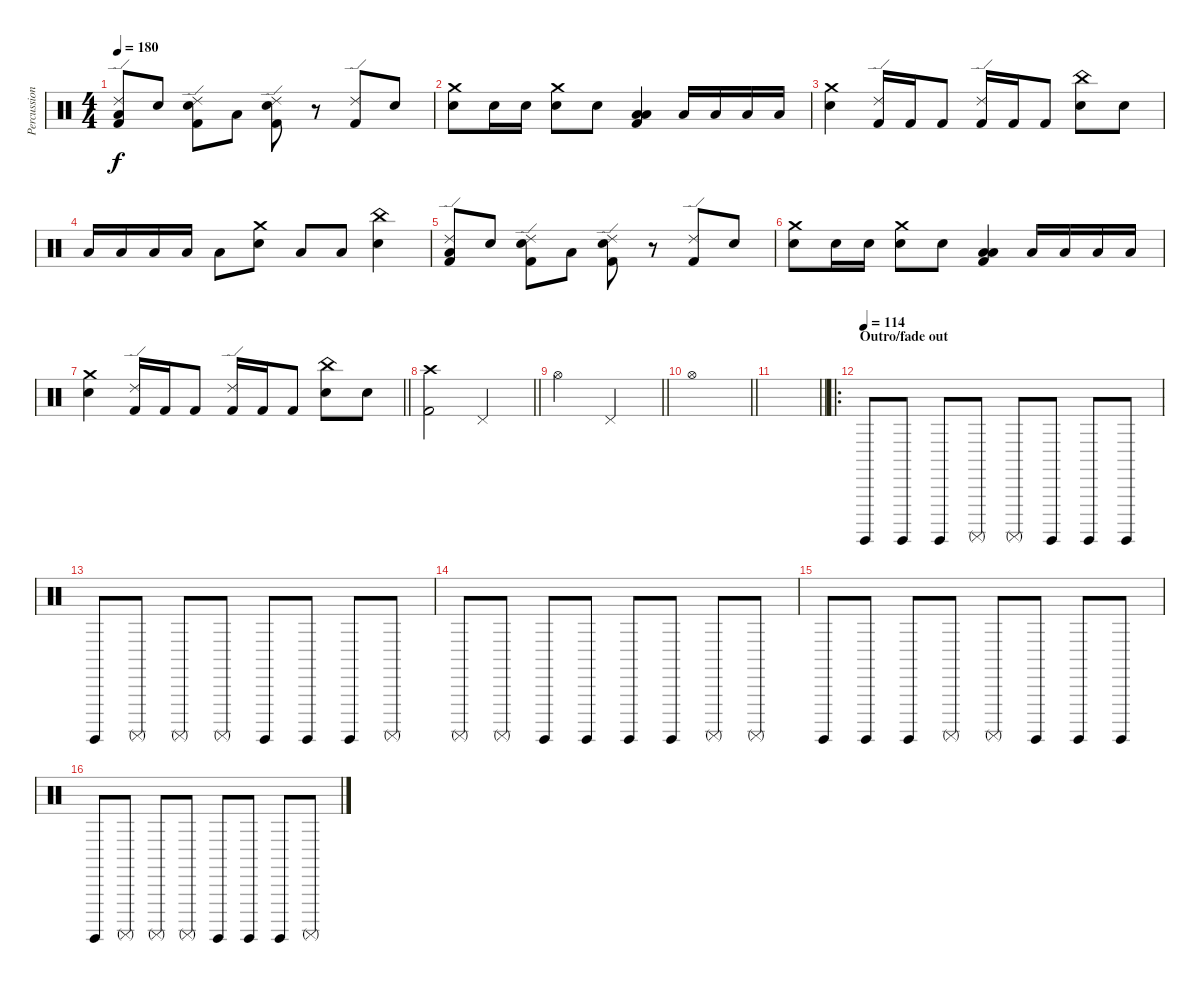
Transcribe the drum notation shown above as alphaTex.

\track ("Percussion" "Percussion") {instrument percussion}
\staff {score}
\articulation defaults
\ts (4 4)
\tempo 180
\clef neutral
\ks c
("Ride (edge) 2" "Low Floor Tom (hit)" "Kick (hit) 2").8{dy f} "Electric Snare (hit)".8 ("Ride (edge) 2" "Electric Snare (hit)" "Kick (hit) 2").8 "Low Floor Tom (hit)".8 ("Ride (edge) 2" "Electric Snare (hit)" "Kick (hit) 2").8 r.8 ("Ride (edge) 2" "Kick (hit) 2").8 "Electric Snare (hit)".8 |
("Crash medium (hit)" "Electric Snare (hit)").8 "Electric Snare (hit)".16 "Electric Snare (hit)".16 ("Crash medium (hit)" "Electric Snare (hit)").8 "Electric Snare (hit)".8 ("Low Tom (hit)" "Low Floor Tom (hit)" "Kick (hit) 2").4 "Low Tom (hit)".16 "Low Tom (hit)".16 "Low Floor Tom (hit)".16 "Low Floor Tom (hit)".16 |
("Crash medium (hit)" "Electric Snare (hit)").4 ("Ride (edge) 2" "Kick (hit) 2").16 "Kick (hit) 2".16 "Kick (hit) 2".8 ("Ride (edge) 2" "Kick (hit) 2").16 "Kick (hit) 2".16 "Kick (hit) 2".8 ("China (hit)" "Electric Snare (hit)").8 "Electric Snare (hit)".8 |
"Low Tom (hit)".16 "Low Tom (hit)".16 "Low Floor Tom (hit)".16 "Low Floor Tom (hit)".16 "Low Floor Tom (hit)".8 ("Crash medium (hit)" "Electric Snare (hit)").8 "Low Tom (hit)".8 "Low Tom (hit)".8 ("China (hit)" "Electric Snare (hit)").4 |
("Ride (edge) 2" "Low Floor Tom (hit)" "Kick (hit) 2").8 "Electric Snare (hit)".8 ("Ride (edge) 2" "Electric Snare (hit)" "Kick (hit) 2").8 "Low Floor Tom (hit)".8 ("Ride (edge) 2" "Electric Snare (hit)" "Kick (hit) 2").8 r.8 ("Ride (edge) 2" "Kick (hit) 2").8 "Electric Snare (hit)".8 |
("Crash medium (hit)" "Electric Snare (hit)").8 "Electric Snare (hit)".16 "Electric Snare (hit)".16 ("Crash medium (hit)" "Electric Snare (hit)").8 "Electric Snare (hit)".8 ("Low Tom (hit)" "Low Floor Tom (hit)" "Kick (hit) 2").4 "Low Tom (hit)".16 "Low Tom (hit)".16 "Low Floor Tom (hit)".16 "Low Floor Tom (hit)".16 |
\barLineRight lightlight
("Crash medium (hit)" "Electric Snare (hit)").4 ("Ride (edge) 2" "Kick (hit) 2").16 "Kick (hit) 2".16 "Kick (hit) 2".8 ("Ride (edge) 2" "Kick (hit) 2").16 "Kick (hit) 2".16 "Kick (hit) 2".8 ("China (hit)" "Electric Snare (hit)").8 "Electric Snare (hit)".8 |
\barLineRight lightlight
("Crash high (hit)" "Kick (hit) 2").2 "Pedal Hi-Hat (hit)".2 |
\barLineRight lightlight "Hi-Hat (open)".2 "Pedal Hi-Hat (hit)".2
|
\barLineRight lightlight "Hi-Hat (open)".1
|
\barLineRight lightlight
|
\ro
\section ("" "Outro/fade out")
\tempo (114)
"Surdo (hit)".8 "Surdo (hit)".8 "Surdo (hit)".8 "Surdo (mute)".8 "Surdo (mute)".8 "Surdo (hit)".8 "Surdo (hit)".8 "Surdo (hit)".8 |
"Surdo (hit)".8 "Surdo (mute)".8 "Surdo (mute)".8 "Surdo (mute)".8 "Surdo (hit)".8 "Surdo (hit)".8 "Surdo (hit)".8 "Surdo (mute)".8 |
"Surdo (mute)".8 "Surdo (mute)".8 "Surdo (hit)".8 "Surdo (hit)".8 "Surdo (hit)".8 "Surdo (hit)".8 "Surdo (mute)".8 "Surdo (mute)".8 |
"Surdo (hit)".8 "Surdo (hit)".8 "Surdo (hit)".8 "Surdo (mute)".8 "Surdo (mute)".8 "Surdo (hit)".8 "Surdo (hit)".8 "Surdo (hit)".8 |
"Surdo (hit)".8 "Surdo (mute)".8 "Surdo (mute)".8 "Surdo (mute)".8 "Surdo (hit)".8 "Surdo (hit)".8 "Surdo (hit)".8 "Surdo (mute)".8
